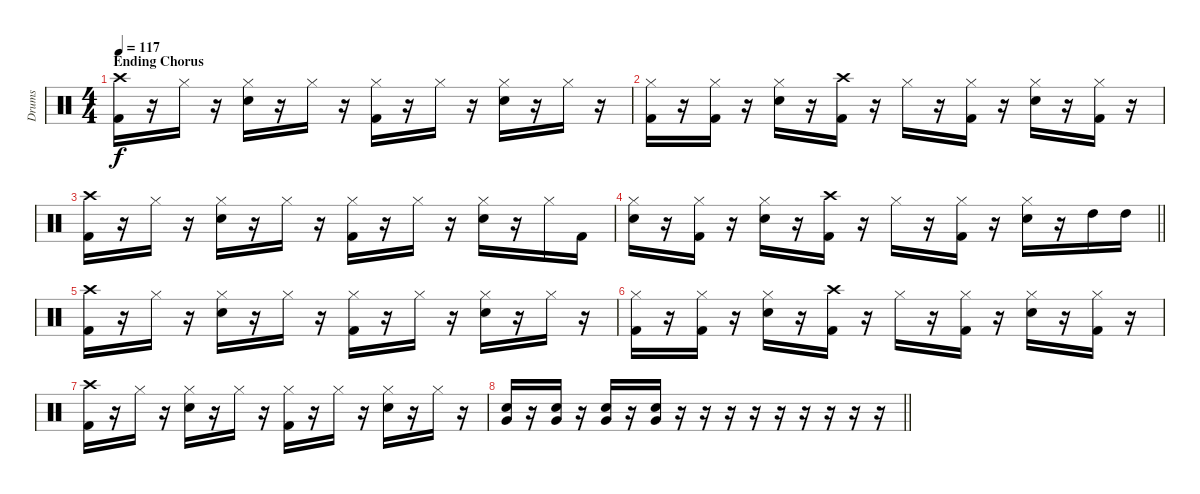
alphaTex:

\track ("Drums" "Drums") {instrument percussion}
\staff {score}
\articulation defaults
\ts (4 4)
\section ("" "Ending Chorus")
\tempo 117
\clef neutral
\ks c
("Crash high (hit)" "Kick (hit) 2").16{dy f} r.16 "Hi-Hat (closed)".16 r.16 ("Hi-Hat (closed)" "Electric Snare (hit)").16 r.16 "Hi-Hat (closed)".16 r.16 ("Hi-Hat (closed)" "Kick (hit) 2").16 r.16 "Hi-Hat (closed)".16 r.16 ("Hi-Hat (closed)" "Electric Snare (hit)").16 r.16 "Hi-Hat (closed)".16 r.16 |
("Hi-Hat (closed)" "Kick (hit) 2").16 r.16 ("Hi-Hat (closed)" "Kick (hit) 2").16 r.16 ("Hi-Hat (closed)" "Electric Snare (hit)").16 r.16 ("Crash high (hit)" "Kick (hit) 2").16 r.16 "Hi-Hat (closed)".16 r.16 ("Hi-Hat (closed)" "Kick (hit) 2").16 r.16 ("Hi-Hat (closed)" "Electric Snare (hit)").16 r.16 ("Hi-Hat (closed)" "Kick (hit) 2").16 r.16 |
("Crash high (hit)" "Kick (hit) 2").16 r.16 "Hi-Hat (closed)".16 r.16 ("Hi-Hat (closed)" "Electric Snare (hit)").16 r.16 "Hi-Hat (closed)".16 r.16 ("Hi-Hat (closed)" "Kick (hit) 2").16 r.16 "Hi-Hat (closed)".16 r.16 ("Hi-Hat (closed)" "Electric Snare (hit)").16 r.16 "Hi-Hat (closed)".16 "Kick (hit) 2".16 |
\barLineRight lightlight
("Hi-Hat (closed)" "Electric Snare (hit)").16 r.16 ("Hi-Hat (closed)" "Kick (hit) 2").16 r.16 ("Hi-Hat (closed)" "Electric Snare (hit)").16 r.16 ("Crash high (hit)" "Kick (hit) 2").16 r.16 "Hi-Hat (closed)".16 r.16 ("Hi-Hat (closed)" "Kick (hit) 2").16 r.16 ("Hi-Hat (closed)" "Electric Snare (hit)").16 r.16 "High Tom (hit)".16 "High Tom (hit)".16 |
("Crash high (hit)" "Kick (hit) 2").16 r.16 "Hi-Hat (closed)".16 r.16 ("Hi-Hat (closed)" "Electric Snare (hit)").16 r.16 "Hi-Hat (closed)".16 r.16 ("Hi-Hat (closed)" "Kick (hit) 2").16 r.16 "Hi-Hat (closed)".16 r.16 ("Hi-Hat (closed)" "Electric Snare (hit)").16 r.16 "Hi-Hat (closed)".16 r.16 |
("Hi-Hat (closed)" "Kick (hit) 2").16 r.16 ("Hi-Hat (closed)" "Kick (hit) 2").16 r.16 ("Hi-Hat (closed)" "Electric Snare (hit)").16 r.16 ("Crash high (hit)" "Kick (hit) 2").16 r.16 "Hi-Hat (closed)".16 r.16 ("Hi-Hat (closed)" "Kick (hit) 2").16 r.16 ("Hi-Hat (closed)" "Electric Snare (hit)").16 r.16 ("Hi-Hat (closed)" "Kick (hit) 2").16 r.16 |
("Crash high (hit)" "Kick (hit) 2").16 r.16 "Hi-Hat (closed)".16 r.16 ("Hi-Hat (closed)" "Electric Snare (hit)").16 r.16 "Hi-Hat (closed)".16 r.16 ("Hi-Hat (closed)" "Kick (hit) 2").16 r.16 "Hi-Hat (closed)".16 r.16 ("Hi-Hat (closed)" "Electric Snare (hit)").16 r.16 "Hi-Hat (closed)".16 r.16 |
\barLineRight lightlight
("Very Low Tom (hit)" "Electric Snare (hit)").16 r.16 ("Very Low Tom (hit)" "Electric Snare (hit)").16 r.16 ("Very Low Tom (hit)" "Electric Snare (hit)").16 r.16 ("Very Low Tom (hit)" "Electric Snare (hit)").16 r.16 r.16 r.16 r.16 r.16 r.16 r.16 r.16 r.16
